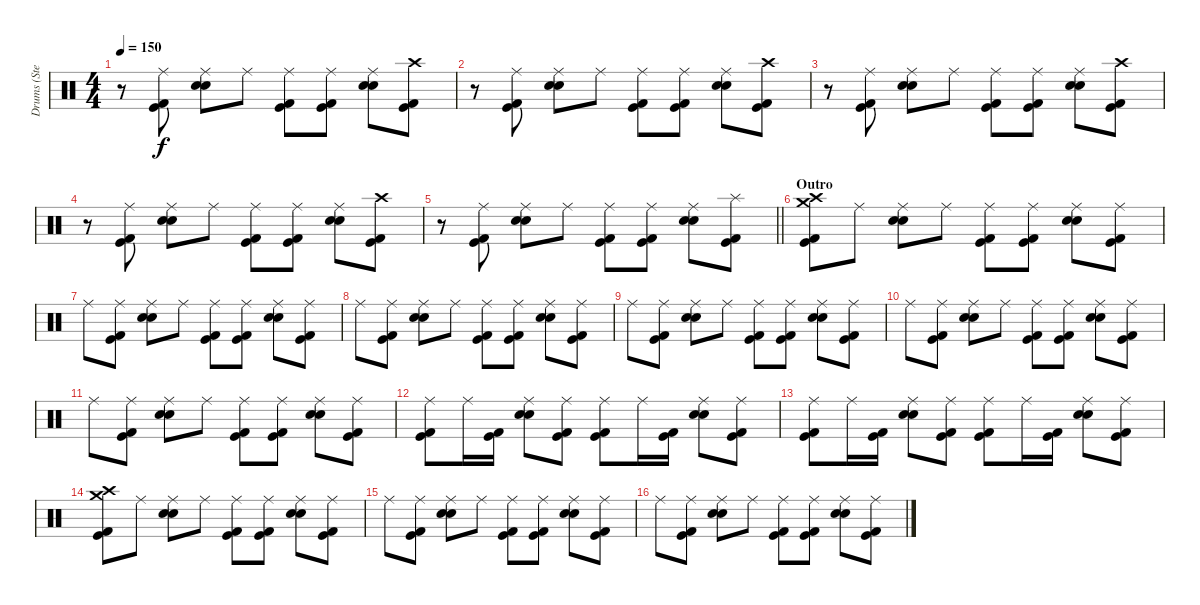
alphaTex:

\track ("Drums (Steven)" "Drums (Ste") {instrument percussion}
\staff {score}
\articulation defaults
\ts (4 4)
\tempo 150
\clef neutral
\ks c
r.8{dy f} ("Kick (hit) 2" "Kick (hit)" "Ride (middle)").8 ("Electric Snare (hit)" "Snare (hit) 2" "Ride (middle)").8 "Ride (middle)".8 ("Kick (hit) 2" "Kick (hit)" "Ride (middle)").8 ("Kick (hit) 2" "Kick (hit)" "Ride (middle)").8 ("Electric Snare (hit)" "Snare (hit) 2" "Ride (middle)").8 ("Kick (hit) 2" "Kick (hit)" "Crash high (hit)").8 |
r.8 ("Kick (hit) 2" "Kick (hit)" "Ride (middle)").8 ("Electric Snare (hit)" "Snare (hit) 2" "Ride (middle)").8 "Ride (middle)".8 ("Kick (hit) 2" "Kick (hit)" "Ride (middle)").8 ("Kick (hit) 2" "Kick (hit)" "Ride (middle)").8 ("Electric Snare (hit)" "Snare (hit) 2" "Ride (middle)").8 ("Kick (hit) 2" "Kick (hit)" "Crash high (hit)").8 |
r.8 ("Kick (hit) 2" "Kick (hit)" "Ride (middle)").8 ("Electric Snare (hit)" "Snare (hit) 2" "Ride (middle)").8 "Ride (middle)".8 ("Kick (hit) 2" "Kick (hit)" "Ride (middle)").8 ("Kick (hit) 2" "Kick (hit)" "Ride (middle)").8 ("Electric Snare (hit)" "Snare (hit) 2" "Ride (middle)").8 ("Kick (hit) 2" "Kick (hit)" "Crash high (hit)").8 |
r.8 ("Kick (hit) 2" "Kick (hit)" "Ride (middle)").8 ("Electric Snare (hit)" "Snare (hit) 2" "Ride (middle)").8 "Ride (middle)".8 ("Kick (hit) 2" "Kick (hit)" "Ride (middle)").8 ("Kick (hit) 2" "Kick (hit)" "Ride (middle)").8 ("Electric Snare (hit)" "Snare (hit) 2" "Ride (middle)").8 ("Kick (hit) 2" "Kick (hit)" "Crash high (hit)").8 |
\barLineRight lightlight
r.8 ("Kick (hit) 2" "Kick (hit)" "Ride (middle)").8 ("Electric Snare (hit)" "Snare (hit) 2" "Ride (middle)").8 "Ride (middle)".8 ("Kick (hit) 2" "Kick (hit)" "Ride (middle)").8 ("Kick (hit) 2" "Kick (hit)" "Ride (middle)").8 ("Electric Snare (hit)" "Snare (hit) 2" "Ride (middle)").8 ("Kick (hit) 2" "Kick (hit)" "Splash (hit)").8 |
\section ("" "Outro")
("Kick (hit) 2" "Kick (hit)" "Crash medium (hit)" "Crash high (hit)").8 "Ride (middle)".8 ("Electric Snare (hit)" "Snare (hit) 2" "Ride (middle)").8 "Ride (middle)".8 ("Kick (hit) 2" "Kick (hit)" "Ride (middle)").8 ("Kick (hit) 2" "Kick (hit)" "Ride (middle)").8 ("Electric Snare (hit)" "Snare (hit) 2" "Ride (middle)").8 ("Kick (hit) 2" "Kick (hit)" "Ride (middle)").8 |
"Ride (middle)".8 ("Kick (hit) 2" "Kick (hit)" "Ride (middle)").8 ("Electric Snare (hit)" "Snare (hit) 2" "Ride (middle)").8 "Ride (middle)".8 ("Kick (hit) 2" "Kick (hit)" "Ride (middle)").8 ("Kick (hit) 2" "Kick (hit)" "Ride (middle)").8 ("Electric Snare (hit)" "Snare (hit) 2" "Ride (middle)").8 ("Kick (hit) 2" "Kick (hit)" "Ride (middle)").8 |
"Ride (middle)".8 ("Kick (hit) 2" "Kick (hit)" "Ride (middle)").8 ("Electric Snare (hit)" "Snare (hit) 2" "Ride (middle)").8 "Ride (middle)".8 ("Kick (hit) 2" "Kick (hit)" "Ride (middle)").8 ("Kick (hit) 2" "Kick (hit)" "Ride (middle)").8 ("Electric Snare (hit)" "Snare (hit) 2" "Ride (middle)").8 ("Kick (hit) 2" "Kick (hit)" "Ride (middle)").8 |
"Ride (middle)".8 ("Kick (hit) 2" "Kick (hit)" "Ride (middle)").8 ("Electric Snare (hit)" "Snare (hit) 2" "Ride (middle)").8 "Ride (middle)".8 ("Kick (hit) 2" "Kick (hit)" "Ride (middle)").8 ("Kick (hit) 2" "Kick (hit)" "Ride (middle)").8 ("Electric Snare (hit)" "Snare (hit) 2" "Ride (middle)").8 ("Kick (hit) 2" "Kick (hit)" "Ride (middle)").8 |
"Ride (middle)".8 ("Kick (hit) 2" "Kick (hit)" "Ride (middle)").8 ("Electric Snare (hit)" "Snare (hit) 2" "Ride (middle)").8 "Ride (middle)".8 ("Kick (hit) 2" "Kick (hit)" "Ride (middle)").8 ("Kick (hit) 2" "Kick (hit)" "Ride (middle)").8 ("Electric Snare (hit)" "Snare (hit) 2" "Ride (middle)").8 ("Kick (hit) 2" "Kick (hit)" "Ride (middle)").8 |
"Ride (middle)".8 ("Kick (hit) 2" "Kick (hit)" "Ride (middle)").8 ("Electric Snare (hit)" "Snare (hit) 2" "Ride (middle)").8 "Ride (middle)".8 ("Kick (hit) 2" "Kick (hit)" "Ride (middle)").8 ("Kick (hit) 2" "Kick (hit)" "Ride (middle)").8 ("Electric Snare (hit)" "Snare (hit) 2" "Ride (middle)").8 ("Kick (hit) 2" "Kick (hit)" "Ride (middle)").8 |
("Kick (hit) 2" "Kick (hit)" "Ride (middle)").8 "Ride (middle)".16 ("Kick (hit) 2" "Kick (hit)").16 ("Electric Snare (hit)" "Snare (hit) 2" "Ride (middle)").8 ("Kick (hit) 2" "Kick (hit)" "Ride (middle)").8 ("Kick (hit) 2" "Kick (hit)" "Ride (middle)").8 "Ride (middle)".16 ("Kick (hit) 2" "Kick (hit)").16 ("Electric Snare (hit)" "Snare (hit) 2" "Ride (middle)").8 ("Kick (hit) 2" "Kick (hit)" "Ride (middle)").8 |
("Kick (hit) 2" "Kick (hit)" "Ride (middle)").8 "Ride (middle)".16 ("Kick (hit) 2" "Kick (hit)").16 ("Electric Snare (hit)" "Snare (hit) 2" "Ride (middle)").8 ("Kick (hit) 2" "Kick (hit)" "Ride (middle)").8 ("Kick (hit) 2" "Kick (hit)" "Ride (middle)").8 "Ride (middle)".16 ("Kick (hit) 2" "Kick (hit)").16 ("Electric Snare (hit)" "Snare (hit) 2" "Ride (middle)").8 ("Kick (hit) 2" "Kick (hit)" "Ride (middle)").8 |
("Kick (hit) 2" "Kick (hit)" "Crash medium (hit)" "Crash high (hit)").8 "Ride (middle)".8 ("Electric Snare (hit)" "Snare (hit) 2" "Ride (middle)").8 "Ride (middle)".8 ("Kick (hit) 2" "Kick (hit)" "Ride (middle)").8 ("Kick (hit) 2" "Kick (hit)" "Ride (middle)").8 ("Electric Snare (hit)" "Snare (hit) 2" "Ride (middle)").8 ("Kick (hit) 2" "Kick (hit)" "Ride (middle)").8 |
"Ride (middle)".8 ("Kick (hit) 2" "Kick (hit)" "Ride (middle)").8 ("Electric Snare (hit)" "Snare (hit) 2" "Ride (middle)").8 "Ride (middle)".8 ("Kick (hit) 2" "Kick (hit)" "Ride (middle)").8 ("Kick (hit) 2" "Kick (hit)" "Ride (middle)").8 ("Electric Snare (hit)" "Snare (hit) 2" "Ride (middle)").8 ("Kick (hit) 2" "Kick (hit)" "Ride (middle)").8 |
"Ride (middle)".8 ("Kick (hit) 2" "Kick (hit)" "Ride (middle)").8 ("Electric Snare (hit)" "Snare (hit) 2" "Ride (middle)").8 "Ride (middle)".8 ("Kick (hit) 2" "Kick (hit)" "Ride (middle)").8 ("Kick (hit) 2" "Kick (hit)" "Ride (middle)").8 ("Electric Snare (hit)" "Snare (hit) 2" "Ride (middle)").8 ("Kick (hit) 2" "Kick (hit)" "Ride (middle)").8
